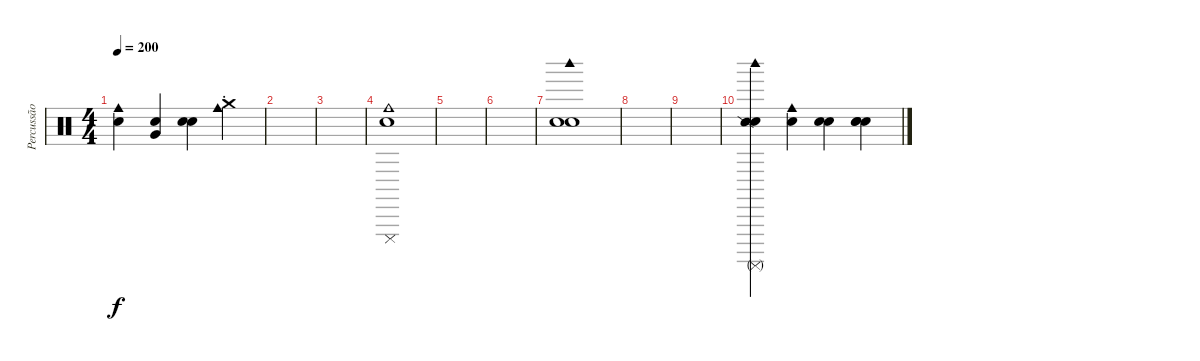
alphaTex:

\track ("Percussão" "Percussão") {instrument percussion}
\staff {score}
\articulation defaults
\ts (4 4)
\tempo 200
\clef neutral
\ks c
("Cowbell medium (hit)" "Snare (hit)").4{dy f} ("Snare (hit)" "Very Low Tom (hit)").4 ("Snare (hit)" "Metronome (bell)").4 ("Crash medium (choke)" "Cowbell medium (hit)").4 |
|
|
("Snare (hit)" "Cuica (mute)" "Cowbell medium (hit)").1 |
|
|
("Woodblock high (hit)" "Snare (hit)" "Snare (hit)").1 |
|
|
("Woodblock high (hit)" "Surdo (mute)" "Snare (hit)" "Snare (side stick) 2").4 ("Cowbell medium (hit)" "Metronome (bell)").4 ("Snare (hit)" "Metronome (bell)").4 ("Snare (hit)" "Snare (hit)" "Snare (hit)").4
